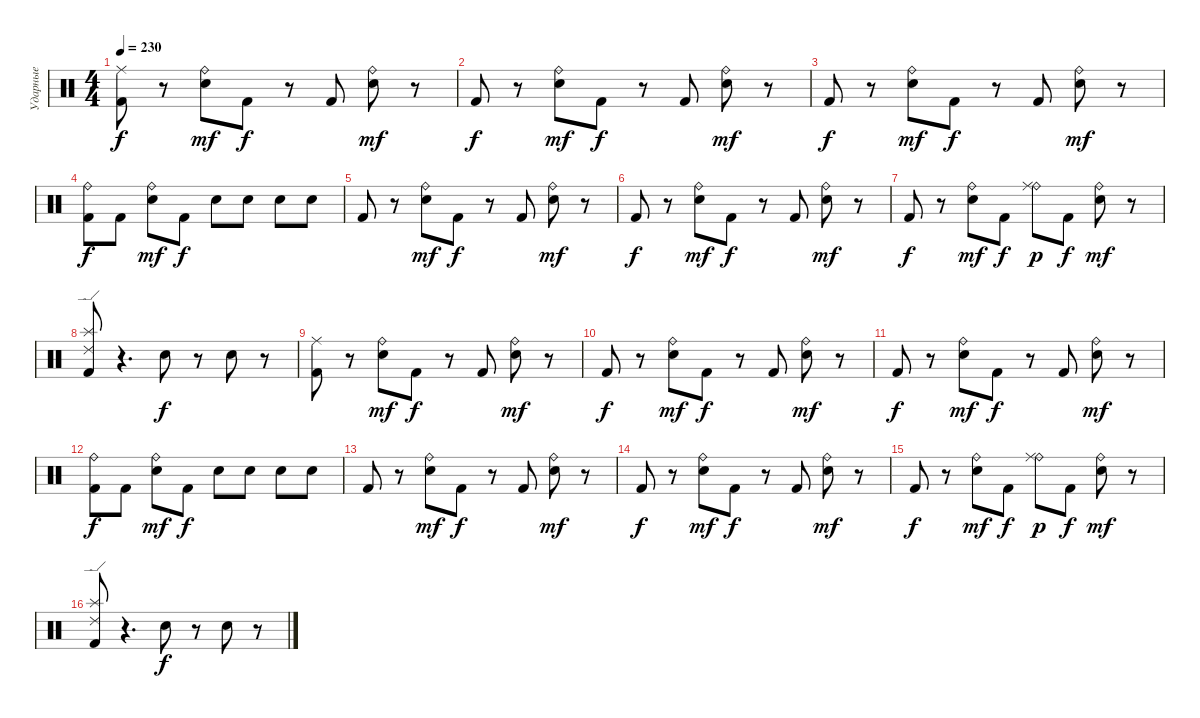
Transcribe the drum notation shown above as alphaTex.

\track ("Ударные" "Ударные") {instrument percussion}
\staff {score}
\articulation defaults
\ts (4 4)
\tempo 230
\clef neutral
\ks c
("Ride (middle)" "Kick (hit) 2").8{dy f} r.8 ("Ride (bell)" "Snare (hit) 2").8{dy mf} "Kick (hit) 2".8{dy f} r.8 "Kick (hit) 2".8 ("Ride (bell)" "Snare (hit) 2").8{dy mf} r.8 |
"Kick (hit) 2".8{dy f} r.8 ("Ride (bell)" "Snare (hit) 2").8{dy mf} "Kick (hit) 2".8{dy f} r.8 "Kick (hit) 2".8 ("Ride (bell)" "Snare (hit) 2").8{dy mf} r.8 |
"Kick (hit) 2".8{dy f} r.8 ("Ride (bell)" "Snare (hit) 2").8{dy mf} "Kick (hit) 2".8{dy f} r.8 "Kick (hit) 2".8 ("Ride (bell)" "Snare (hit) 2").8{dy mf} r.8 |
("Ride (bell)" "Kick (hit) 2").8{dy f} "Kick (hit) 2".8 ("Ride (bell)" "Snare (hit) 2").8{dy mf} "Kick (hit) 2".8{dy f} "Snare (hit) 2".8 "Snare (hit) 2".8 "Snare (hit) 2".8 "Snare (hit) 2".8 |
"Kick (hit) 2".8 r.8 ("Ride (bell)" "Snare (hit) 2").8{dy mf} "Kick (hit) 2".8{dy f} r.8 "Kick (hit) 2".8 ("Ride (bell)" "Snare (hit) 2").8{dy mf} r.8 |
"Kick (hit) 2".8{dy f} r.8 ("Ride (bell)" "Snare (hit) 2").8{dy mf} "Kick (hit) 2".8{dy f} r.8 "Kick (hit) 2".8 ("Ride (bell)" "Snare (hit) 2").8{dy mf} r.8 |
"Kick (hit) 2".8{dy f} r.8 ("Ride (bell)" "Snare (hit) 2").8{dy mf} "Kick (hit) 2".8{dy f} ("Ride (bell)" "Ride (middle)").8{dy p} "Kick (hit) 2".8{dy f} ("Ride (bell)" "Snare (hit) 2").8{dy mf} r.8 |
("Splash (hit)" "Ride (edge) 2" "Kick (hit) 2").8 r.4{d} "Snare (hit) 2".8{dy f} r.8 "Snare (hit) 2".8 r.8 |
("Ride (middle)" "Kick (hit) 2").8 r.8 ("Ride (bell)" "Snare (hit) 2").8{dy mf} "Kick (hit) 2".8{dy f} r.8 "Kick (hit) 2".8 ("Ride (bell)" "Snare (hit) 2").8{dy mf} r.8 |
"Kick (hit) 2".8{dy f} r.8 ("Ride (bell)" "Snare (hit) 2").8{dy mf} "Kick (hit) 2".8{dy f} r.8 "Kick (hit) 2".8 ("Ride (bell)" "Snare (hit) 2").8{dy mf} r.8 |
"Kick (hit) 2".8{dy f} r.8 ("Ride (bell)" "Snare (hit) 2").8{dy mf} "Kick (hit) 2".8{dy f} r.8 "Kick (hit) 2".8 ("Ride (bell)" "Snare (hit) 2").8{dy mf} r.8 |
("Ride (bell)" "Kick (hit) 2").8{dy f} "Kick (hit) 2".8 ("Ride (bell)" "Snare (hit) 2").8{dy mf} "Kick (hit) 2".8{dy f} "Snare (hit) 2".8 "Snare (hit) 2".8 "Snare (hit) 2".8 "Snare (hit) 2".8 |
"Kick (hit) 2".8 r.8 ("Ride (bell)" "Snare (hit) 2").8{dy mf} "Kick (hit) 2".8{dy f} r.8 "Kick (hit) 2".8 ("Ride (bell)" "Snare (hit) 2").8{dy mf} r.8 |
"Kick (hit) 2".8{dy f} r.8 ("Ride (bell)" "Snare (hit) 2").8{dy mf} "Kick (hit) 2".8{dy f} r.8 "Kick (hit) 2".8 ("Ride (bell)" "Snare (hit) 2").8{dy mf} r.8 |
"Kick (hit) 2".8{dy f} r.8 ("Ride (bell)" "Snare (hit) 2").8{dy mf} "Kick (hit) 2".8{dy f} ("Ride (bell)" "Ride (middle)").8{dy p} "Kick (hit) 2".8{dy f} ("Ride (bell)" "Snare (hit) 2").8{dy mf} r.8 |
("Splash (hit)" "Ride (edge) 2" "Kick (hit) 2").8 r.4{d} "Snare (hit) 2".8{dy f} r.8 "Snare (hit) 2".8 r.8
